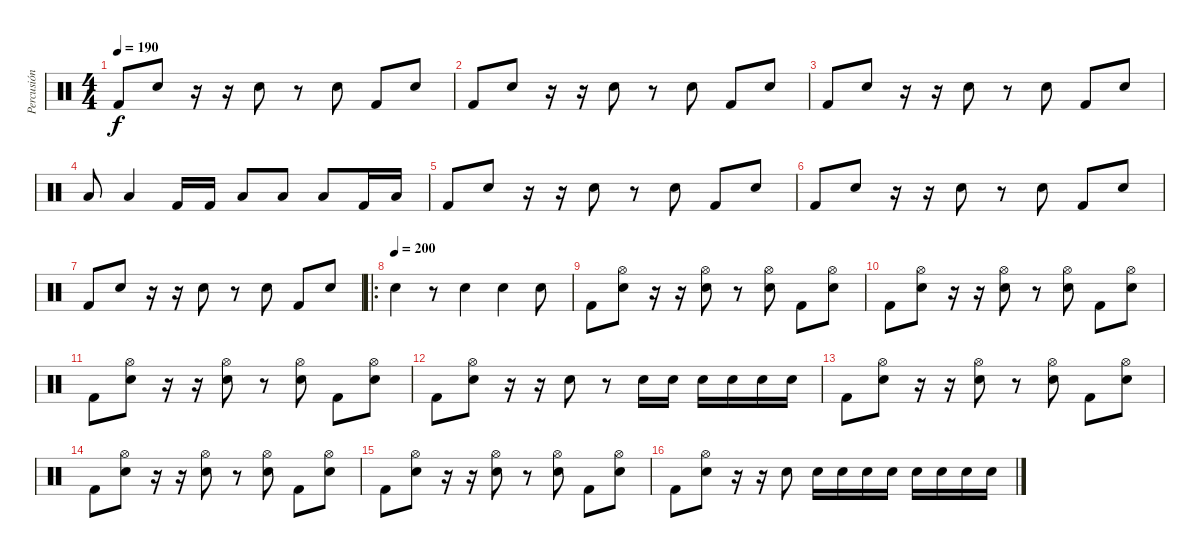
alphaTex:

\track ("Percusión" "Percusión") {instrument percussion}
\staff {score}
\articulation defaults
\ts (4 4)
\tempo 190
\clef neutral
\ks c "Kick (hit) 2".8{dy f} "Electric Snare (hit)".8
r.16 r.16 "Electric Snare (hit)".8 r.8 "Electric Snare (hit)".8 "Kick (hit) 2".8 "Electric Snare (hit)".8 |
"Kick (hit) 2".8 "Electric Snare (hit)".8 r.16 r.16 "Electric Snare (hit)".8 r.8 "Electric Snare (hit)".8 "Kick (hit) 2".8 "Electric Snare (hit)".8 |
"Kick (hit) 2".8 "Electric Snare (hit)".8 r.16 r.16 "Electric Snare (hit)".8 r.8 "Electric Snare (hit)".8 "Kick (hit) 2".8 "Electric Snare (hit)".8 |
"Low Tom (hit)".8 "Low Tom (hit)".4 "Kick (hit) 2".16 "Kick (hit) 2".16 "Low Tom (hit)".8 "Low Tom (hit)".8 "Low Tom (hit)".8 "Kick (hit) 2".16 "Low Tom (hit)".16 |
"Kick (hit) 2".8 "Electric Snare (hit)".8 r.16 r.16 "Electric Snare (hit)".8 r.8 "Electric Snare (hit)".8 "Kick (hit) 2".8 "Electric Snare (hit)".8 |
"Kick (hit) 2".8 "Electric Snare (hit)".8 r.16 r.16 "Electric Snare (hit)".8 r.8 "Electric Snare (hit)".8 "Kick (hit) 2".8 "Electric Snare (hit)".8 |
"Kick (hit) 2".8 "Electric Snare (hit)".8 r.16 r.16 "Electric Snare (hit)".8 r.8 "Electric Snare (hit)".8 "Kick (hit) 2".8 "Electric Snare (hit)".8 |
\ro
\tempo (200)
"Electric Snare (hit)".4 r.8 "Electric Snare (hit)".4 "Electric Snare (hit)".4 "Electric Snare (hit)".8 |
"Kick (hit) 2".8 ("Electric Snare (hit)" "Hi-Hat (open)").8 r.16 r.16 ("Electric Snare (hit)" "Hi-Hat (open)").8 r.8 ("Electric Snare (hit)" "Hi-Hat (open)").8 "Kick (hit) 2".8 ("Electric Snare (hit)" "Hi-Hat (open)").8 |
"Kick (hit) 2".8 ("Electric Snare (hit)" "Hi-Hat (open)").8 r.16 r.16 ("Electric Snare (hit)" "Hi-Hat (open)").8 r.8 ("Electric Snare (hit)" "Hi-Hat (open)").8 "Kick (hit) 2".8 ("Electric Snare (hit)" "Hi-Hat (open)").8 |
"Kick (hit) 2".8 ("Electric Snare (hit)" "Hi-Hat (open)").8 r.16 r.16 ("Electric Snare (hit)" "Hi-Hat (open)").8 r.8 ("Electric Snare (hit)" "Hi-Hat (open)").8 "Kick (hit) 2".8 ("Electric Snare (hit)" "Hi-Hat (open)").8 |
"Kick (hit) 2".8 ("Electric Snare (hit)" "Hi-Hat (open)").8 r.16 r.16 "Electric Snare (hit)".8 r.8 "Electric Snare (hit)".16 "Electric Snare (hit)".16 "Electric Snare (hit)".16 "Electric Snare (hit)".16 "Electric Snare (hit)".16 "Electric Snare (hit)".16 |
"Kick (hit) 2".8 ("Electric Snare (hit)" "Hi-Hat (open)").8 r.16 r.16 ("Electric Snare (hit)" "Hi-Hat (open)").8 r.8 ("Electric Snare (hit)" "Hi-Hat (open)").8 "Kick (hit) 2".8 ("Electric Snare (hit)" "Hi-Hat (open)").8 |
"Kick (hit) 2".8 ("Electric Snare (hit)" "Hi-Hat (open)").8 r.16 r.16 ("Electric Snare (hit)" "Hi-Hat (open)").8 r.8 ("Electric Snare (hit)" "Hi-Hat (open)").8 "Kick (hit) 2".8 ("Electric Snare (hit)" "Hi-Hat (open)").8 |
"Kick (hit) 2".8 ("Electric Snare (hit)" "Hi-Hat (open)").8 r.16 r.16 ("Electric Snare (hit)" "Hi-Hat (open)").8 r.8 ("Electric Snare (hit)" "Hi-Hat (open)").8 "Kick (hit) 2".8 ("Electric Snare (hit)" "Hi-Hat (open)").8 |
"Kick (hit) 2".8 ("Electric Snare (hit)" "Hi-Hat (open)").8 r.16 r.16 "Electric Snare (hit)".8 "Electric Snare (hit)".16 "Electric Snare (hit)".16 "Electric Snare (hit)".16 "Electric Snare (hit)".16 "Electric Snare (hit)".16 "Electric Snare (hit)".16 "Electric Snare (hit)".16 "Electric Snare (hit)".16
